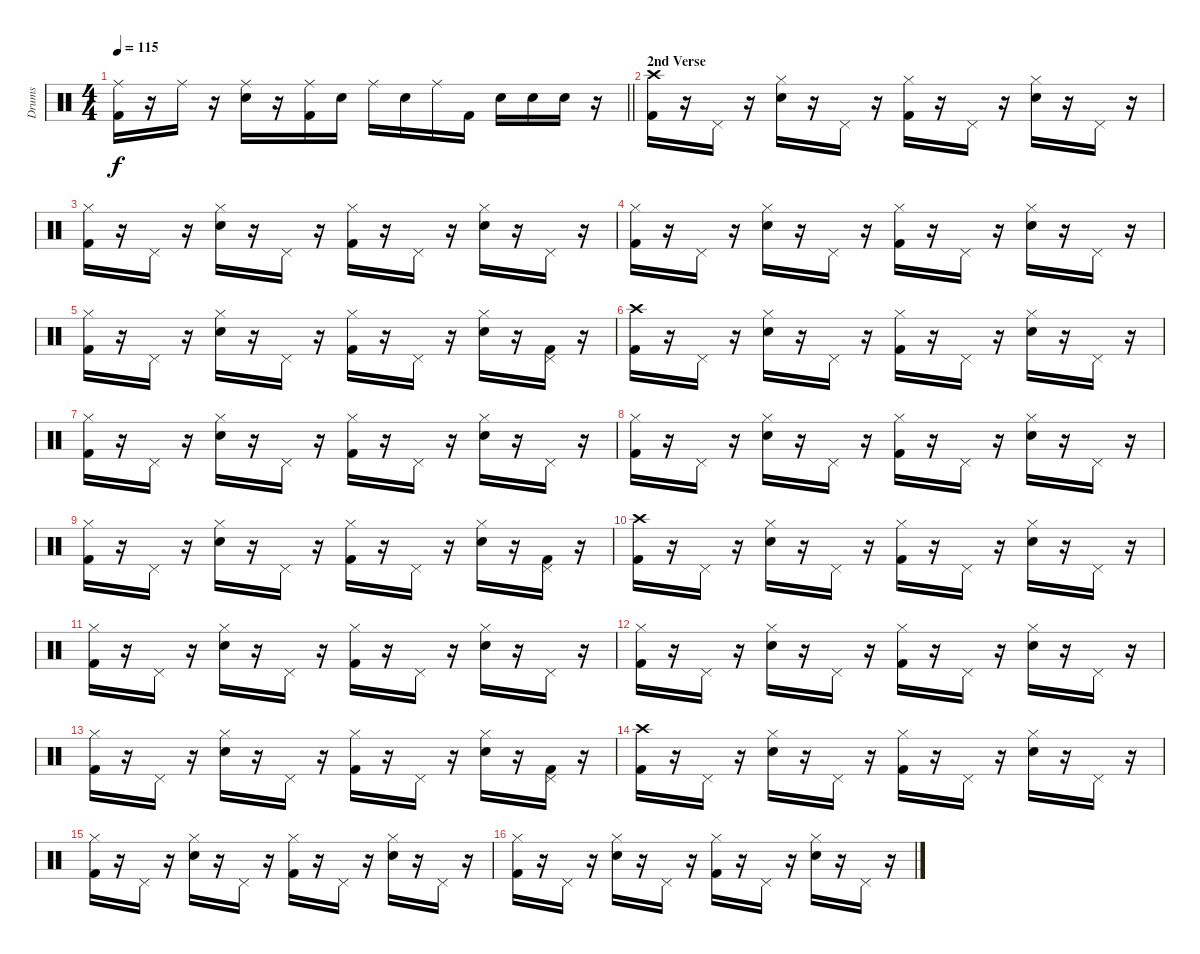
\track ("Drums" "Drums") {instrument percussion}
\staff {score}
\articulation defaults
\ts (4 4)
\tempo 115
\clef neutral
\barLineRight lightlight
\ks c
("Ride (middle)" "Kick (hit) 2").16{dy f} r.16 "Ride (middle)".16 r.16 ("Ride (middle)" "Snare (hit) 2").16 r.16 ("Ride (middle)" "Kick (hit) 2").16 "Snare (hit) 2".16 "Ride (middle)".16 "Snare (hit) 2".16 "Ride (middle)".16 "Kick (hit) 2".16 "Snare (hit) 2".16 "Snare (hit) 2".16 "Snare (hit) 2".16 r.16 |
\section ("" "2nd Verse")
("Crash high (hit)" "Kick (hit) 2").16 r.16 "Pedal Hi-Hat (hit)".16 r.16 ("Hi-Hat (closed)" "Snare (hit) 2").16 r.16 "Pedal Hi-Hat (hit)".16 r.16 ("Hi-Hat (closed)" "Kick (hit) 2").16 r.16 "Pedal Hi-Hat (hit)".16 r.16 ("Hi-Hat (closed)" "Snare (hit) 2").16 r.16 "Pedal Hi-Hat (hit)".16 r.16 |
("Hi-Hat (closed)" "Kick (hit) 2").16 r.16 "Pedal Hi-Hat (hit)".16 r.16 ("Hi-Hat (closed)" "Snare (hit) 2").16 r.16 "Pedal Hi-Hat (hit)".16 r.16 ("Hi-Hat (closed)" "Kick (hit) 2").16 r.16 "Pedal Hi-Hat (hit)".16 r.16 ("Hi-Hat (closed)" "Snare (hit) 2").16 r.16 "Pedal Hi-Hat (hit)".16 r.16 |
("Hi-Hat (closed)" "Kick (hit) 2").16 r.16 "Pedal Hi-Hat (hit)".16 r.16 ("Hi-Hat (closed)" "Snare (hit) 2").16 r.16 "Pedal Hi-Hat (hit)".16 r.16 ("Hi-Hat (closed)" "Kick (hit) 2").16 r.16 "Pedal Hi-Hat (hit)".16 r.16 ("Hi-Hat (closed)" "Snare (hit) 2").16 r.16 "Pedal Hi-Hat (hit)".16 r.16 |
("Hi-Hat (closed)" "Kick (hit) 2").16 r.16 "Pedal Hi-Hat (hit)".16 r.16 ("Hi-Hat (closed)" "Snare (hit) 2").16 r.16 "Pedal Hi-Hat (hit)".16 r.16 ("Hi-Hat (closed)" "Kick (hit) 2").16 r.16 "Pedal Hi-Hat (hit)".16 r.16 ("Hi-Hat (closed)" "Snare (hit) 2").16 r.16 ("Pedal Hi-Hat (hit)" "Kick (hit) 2").16 r.16 |
("Crash high (hit)" "Kick (hit) 2").16 r.16 "Pedal Hi-Hat (hit)".16 r.16 ("Hi-Hat (closed)" "Snare (hit) 2").16 r.16 "Pedal Hi-Hat (hit)".16 r.16 ("Hi-Hat (closed)" "Kick (hit) 2").16 r.16 "Pedal Hi-Hat (hit)".16 r.16 ("Hi-Hat (closed)" "Snare (hit) 2").16 r.16 "Pedal Hi-Hat (hit)".16 r.16 |
("Hi-Hat (closed)" "Kick (hit) 2").16 r.16 "Pedal Hi-Hat (hit)".16 r.16 ("Hi-Hat (closed)" "Snare (hit) 2").16 r.16 "Pedal Hi-Hat (hit)".16 r.16 ("Hi-Hat (closed)" "Kick (hit) 2").16 r.16 "Pedal Hi-Hat (hit)".16 r.16 ("Hi-Hat (closed)" "Snare (hit) 2").16 r.16 "Pedal Hi-Hat (hit)".16 r.16 |
("Hi-Hat (closed)" "Kick (hit) 2").16 r.16 "Pedal Hi-Hat (hit)".16 r.16 ("Hi-Hat (closed)" "Snare (hit) 2").16 r.16 "Pedal Hi-Hat (hit)".16 r.16 ("Hi-Hat (closed)" "Kick (hit) 2").16 r.16 "Pedal Hi-Hat (hit)".16 r.16 ("Hi-Hat (closed)" "Snare (hit) 2").16 r.16 "Pedal Hi-Hat (hit)".16 r.16 |
("Hi-Hat (closed)" "Kick (hit) 2").16 r.16 "Pedal Hi-Hat (hit)".16 r.16 ("Hi-Hat (closed)" "Snare (hit) 2").16 r.16 "Pedal Hi-Hat (hit)".16 r.16 ("Hi-Hat (closed)" "Kick (hit) 2").16 r.16 "Pedal Hi-Hat (hit)".16 r.16 ("Hi-Hat (closed)" "Snare (hit) 2").16 r.16 ("Pedal Hi-Hat (hit)" "Kick (hit) 2").16 r.16 |
("Crash high (hit)" "Kick (hit) 2").16 r.16 "Pedal Hi-Hat (hit)".16 r.16 ("Hi-Hat (closed)" "Snare (hit) 2").16 r.16 "Pedal Hi-Hat (hit)".16 r.16 ("Hi-Hat (closed)" "Kick (hit) 2").16 r.16 "Pedal Hi-Hat (hit)".16 r.16 ("Hi-Hat (closed)" "Snare (hit) 2").16 r.16 "Pedal Hi-Hat (hit)".16 r.16 |
("Hi-Hat (closed)" "Kick (hit) 2").16 r.16 "Pedal Hi-Hat (hit)".16 r.16 ("Hi-Hat (closed)" "Snare (hit) 2").16 r.16 "Pedal Hi-Hat (hit)".16 r.16 ("Hi-Hat (closed)" "Kick (hit) 2").16 r.16 "Pedal Hi-Hat (hit)".16 r.16 ("Hi-Hat (closed)" "Snare (hit) 2").16 r.16 "Pedal Hi-Hat (hit)".16 r.16 |
("Hi-Hat (closed)" "Kick (hit) 2").16 r.16 "Pedal Hi-Hat (hit)".16 r.16 ("Hi-Hat (closed)" "Snare (hit) 2").16 r.16 "Pedal Hi-Hat (hit)".16 r.16 ("Hi-Hat (closed)" "Kick (hit) 2").16 r.16 "Pedal Hi-Hat (hit)".16 r.16 ("Hi-Hat (closed)" "Snare (hit) 2").16 r.16 "Pedal Hi-Hat (hit)".16 r.16 |
("Hi-Hat (closed)" "Kick (hit) 2").16 r.16 "Pedal Hi-Hat (hit)".16 r.16 ("Hi-Hat (closed)" "Snare (hit) 2").16 r.16 "Pedal Hi-Hat (hit)".16 r.16 ("Hi-Hat (closed)" "Kick (hit) 2").16 r.16 "Pedal Hi-Hat (hit)".16 r.16 ("Hi-Hat (closed)" "Snare (hit) 2").16 r.16 ("Pedal Hi-Hat (hit)" "Kick (hit) 2").16 r.16 |
("Crash high (hit)" "Kick (hit) 2").16 r.16 "Pedal Hi-Hat (hit)".16 r.16 ("Hi-Hat (closed)" "Snare (hit) 2").16 r.16 "Pedal Hi-Hat (hit)".16 r.16 ("Hi-Hat (closed)" "Kick (hit) 2").16 r.16 "Pedal Hi-Hat (hit)".16 r.16 ("Hi-Hat (closed)" "Snare (hit) 2").16 r.16 "Pedal Hi-Hat (hit)".16 r.16 |
("Hi-Hat (closed)" "Kick (hit) 2").16 r.16 "Pedal Hi-Hat (hit)".16 r.16 ("Hi-Hat (closed)" "Snare (hit) 2").16 r.16 "Pedal Hi-Hat (hit)".16 r.16 ("Hi-Hat (closed)" "Kick (hit) 2").16 r.16 "Pedal Hi-Hat (hit)".16 r.16 ("Hi-Hat (closed)" "Snare (hit) 2").16 r.16 "Pedal Hi-Hat (hit)".16 r.16 |
("Hi-Hat (closed)" "Kick (hit) 2").16 r.16 "Pedal Hi-Hat (hit)".16 r.16 ("Hi-Hat (closed)" "Snare (hit) 2").16 r.16 "Pedal Hi-Hat (hit)".16 r.16 ("Hi-Hat (closed)" "Kick (hit) 2").16 r.16 "Pedal Hi-Hat (hit)".16 r.16 ("Hi-Hat (closed)" "Snare (hit) 2").16 r.16 "Pedal Hi-Hat (hit)".16 r.16
